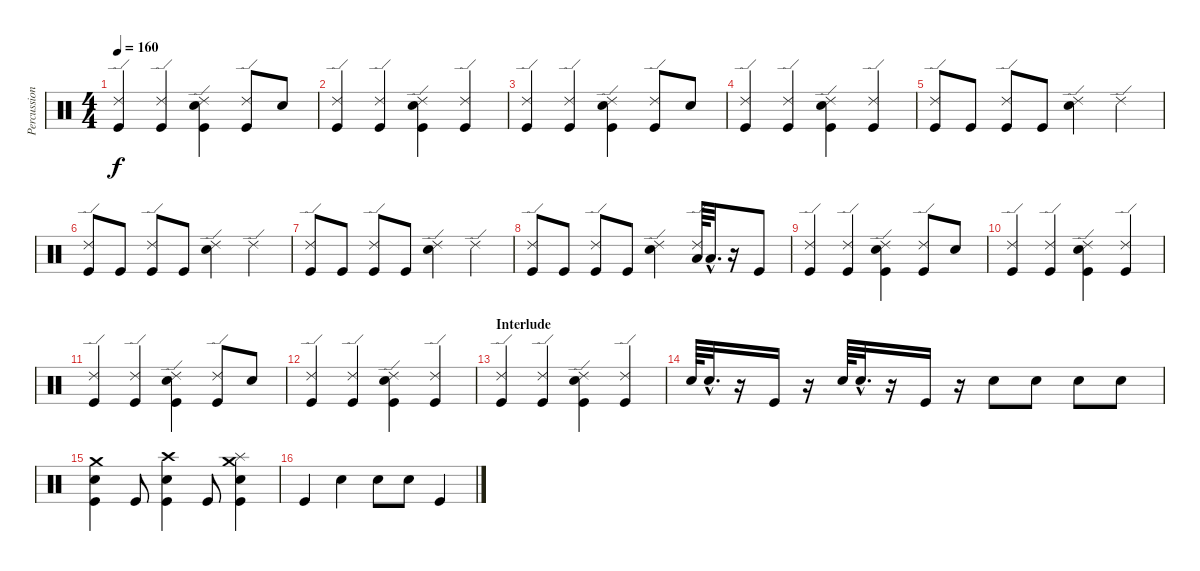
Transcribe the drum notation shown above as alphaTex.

\track ("Percussion" "Percussion") {instrument percussion}
\staff {score}
\articulation defaults
\ts (4 4)
\tempo 160
\clef neutral
\ks c
("Ride (edge) 2" "Kick (hit)").4{dy f} ("Ride (edge) 2" "Kick (hit)").4 ("Ride (edge) 2" "Snare (hit) 2" "Kick (hit)").4 ("Ride (edge) 2" "Kick (hit)").8 "Snare (hit) 2".8 |
("Ride (edge) 2" "Kick (hit)").4 ("Ride (edge) 2" "Kick (hit)").4 ("Ride (edge) 2" "Snare (hit) 2" "Kick (hit)").4 ("Ride (edge) 2" "Kick (hit)").4 |
("Ride (edge) 2" "Kick (hit)").4 ("Ride (edge) 2" "Kick (hit)").4 ("Ride (edge) 2" "Snare (hit) 2" "Kick (hit)").4 ("Ride (edge) 2" "Kick (hit)").8 "Snare (hit) 2".8 |
("Ride (edge) 2" "Kick (hit)").4 ("Ride (edge) 2" "Kick (hit)").4 ("Ride (edge) 2" "Snare (hit) 2" "Kick (hit)").4 ("Ride (edge) 2" "Kick (hit)").4 |
("Ride (edge) 2" "Kick (hit)").8 "Kick (hit)".8 ("Ride (edge) 2" "Kick (hit)").8 "Kick (hit)".8 ("Ride (edge) 2" "Snare (hit) 2").4 "Ride (edge) 2".4 |
("Ride (edge) 2" "Kick (hit)").8 "Kick (hit)".8 ("Ride (edge) 2" "Kick (hit)").8 "Kick (hit)".8 ("Ride (edge) 2" "Snare (hit) 2").4 "Ride (edge) 2".4 |
("Ride (edge) 2" "Kick (hit)").8 "Kick (hit)".8 ("Ride (edge) 2" "Kick (hit)").8 "Kick (hit)".8 ("Ride (edge) 2" "Snare (hit) 2").4 "Ride (edge) 2".4 |
("Ride (edge) 2" "Kick (hit)").8 "Kick (hit)".8 ("Ride (edge) 2" "Kick (hit)").8 "Kick (hit)".8 ("Ride (edge) 2" "Snare (hit) 2").4 ("Ride (edge) 2" "Low Floor Tom (hit)").64 "Low Floor Tom (hit)"{hac}.32{d} r.16 "Kick (hit)".8 |
("Ride (edge) 2" "Kick (hit)").4 ("Ride (edge) 2" "Kick (hit)").4 ("Ride (edge) 2" "Snare (hit) 2" "Kick (hit)").4 ("Ride (edge) 2" "Kick (hit)").8 "Snare (hit) 2".8 |
("Ride (edge) 2" "Kick (hit)").4 ("Ride (edge) 2" "Kick (hit)").4 ("Ride (edge) 2" "Snare (hit) 2" "Kick (hit)").4 ("Ride (edge) 2" "Kick (hit)").4 |
("Ride (edge) 2" "Kick (hit)").4 ("Ride (edge) 2" "Kick (hit)").4 ("Ride (edge) 2" "Snare (hit) 2" "Kick (hit)").4 ("Ride (edge) 2" "Kick (hit)").8 "Snare (hit) 2".8 |
("Ride (edge) 2" "Kick (hit)").4 ("Ride (edge) 2" "Kick (hit)").4 ("Ride (edge) 2" "Snare (hit) 2" "Kick (hit)").4 ("Ride (edge) 2" "Kick (hit)").4 |
\section ("" "Interlude")
("Ride (edge) 2" "Kick (hit)").4 ("Ride (edge) 2" "Kick (hit)").4 ("Ride (edge) 2" "Snare (hit) 2" "Kick (hit)").4 ("Ride (edge) 2" "Kick (hit)").4 |
"Snare (hit) 2".64 "Snare (hit) 2"{hac}.32{d} r.16 "Kick (hit)".16 r.16 "Snare (hit) 2".64 "Snare (hit) 2"{hac}.32{d} r.16 "Kick (hit)".16 r.16 "Snare (hit) 2".8 "Snare (hit) 2".8 "Snare (hit) 2".8 "Snare (hit) 2".8 |
("Crash medium (hit)" "Snare (hit) 2" "Kick (hit)").4 "Kick (hit)".8 ("Crash high (hit)" "Snare (hit) 2" "Kick (hit)").4 "Kick (hit)".8 ("Splash (hit)" "Crash medium (hit)" "Snare (hit) 2" "Kick (hit)").4 |
"Kick (hit)".4 "Snare (hit) 2".4 "Snare (hit) 2".8 "Snare (hit) 2".8 "Kick (hit)".4
